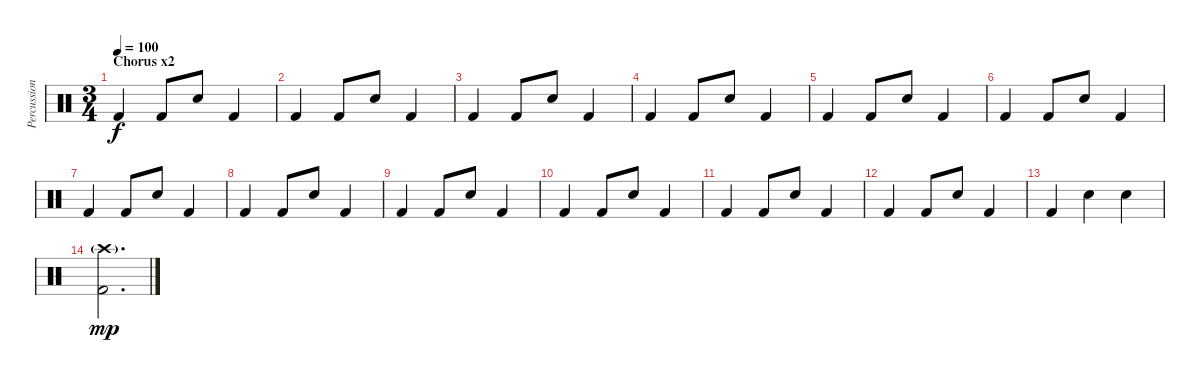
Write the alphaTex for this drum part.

\track ("Percussion" "Percussion") {instrument percussion}
\staff {score}
\articulation defaults
\ts (3 4)
\section ("" "Chorus x2")
\tempo 100
\clef neutral
\ks c "Kick (hit) 2".4{dy f} "Kick (hit) 2".8 "Snare (hit) 2".8 "Kick (hit) 2".4
|
"Kick (hit) 2".4 "Kick (hit) 2".8 "Snare (hit) 2".8 "Kick (hit) 2".4 |
"Kick (hit) 2".4 "Kick (hit) 2".8 "Snare (hit) 2".8 "Kick (hit) 2".4 |
"Kick (hit) 2".4 "Kick (hit) 2".8 "Snare (hit) 2".8 "Kick (hit) 2".4 |
"Kick (hit) 2".4 "Kick (hit) 2".8 "Snare (hit) 2".8 "Kick (hit) 2".4 |
"Kick (hit) 2".4 "Kick (hit) 2".8 "Snare (hit) 2".8 "Kick (hit) 2".4 |
"Kick (hit) 2".4 "Kick (hit) 2".8 "Snare (hit) 2".8 "Kick (hit) 2".4 |
"Kick (hit) 2".4 "Kick (hit) 2".8 "Snare (hit) 2".8 "Kick (hit) 2".4 |
"Kick (hit) 2".4 "Kick (hit) 2".8 "Snare (hit) 2".8 "Kick (hit) 2".4 |
"Kick (hit) 2".4 "Kick (hit) 2".8 "Snare (hit) 2".8 "Kick (hit) 2".4 |
"Kick (hit) 2".4 "Kick (hit) 2".8 "Snare (hit) 2".8 "Kick (hit) 2".4 |
"Kick (hit) 2".4 "Kick (hit) 2".8 "Snare (hit) 2".8 "Kick (hit) 2".4 |
"Kick (hit) 2".4 "Snare (hit) 2".4 "Snare (hit) 2".4 |
("Crash high (hit)"{g} "Kick (hit) 2").2{d dy mp}
